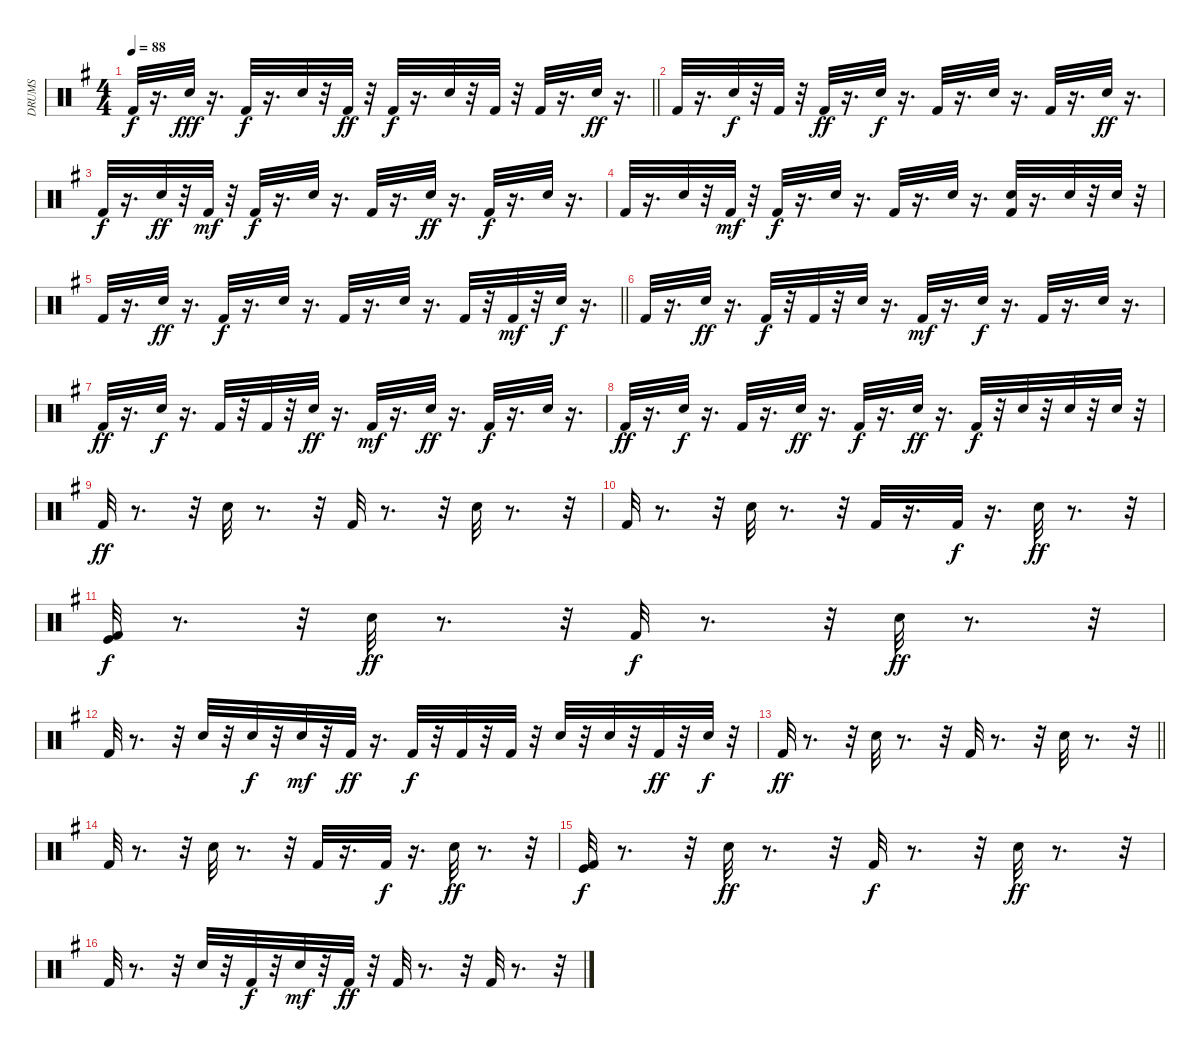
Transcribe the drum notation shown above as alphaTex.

\track ("DRUMS" "DRUMS") {instrument percussion}
\staff {score}
\articulation defaults
\ts (4 4)
\tempo 88
\clef neutral
\barLineRight lightlight
\ks g "Kick (hit) 2".32{dy f}
r.16{d} "Electric Snare (hit)".32{dy fff} r.16{d} "Kick (hit) 2".32{dy f} r.16{d} "Electric Snare (hit)".32 r.32 "Kick (hit) 2".32{dy ff} r.32 "Kick (hit) 2".32{dy f} r.16{d} "Electric Snare (hit)".32 r.32 "Kick (hit) 2".32 r.32 "Kick (hit) 2".32 r.16{d} "Electric Snare (hit)".32{dy ff} r.16{d} |
"Kick (hit) 2".32 r.16{d} "Electric Snare (hit)".32{dy f} r.32 "Kick (hit) 2".32 r.32 "Kick (hit) 2".32{dy ff} r.16{d} "Electric Snare (hit)".32{dy f} r.16{d} "Kick (hit) 2".32 r.16{d} "Electric Snare (hit)".32 r.16{d} "Kick (hit) 2".32 r.16{d} "Electric Snare (hit)".32{dy ff} r.16{d} |
"Kick (hit) 2".32{dy f} r.16{d} "Electric Snare (hit)".32{dy ff} r.32 "Kick (hit) 2".32{dy mf} r.32 "Kick (hit) 2".32{dy f} r.16{d} "Electric Snare (hit)".32 r.16{d} "Kick (hit) 2".32 r.16{d} "Electric Snare (hit)".32{dy ff} r.16{d} "Kick (hit) 2".32{dy f} r.16{d} "Electric Snare (hit)".32 r.16{d} |
"Kick (hit) 2".32 r.16{d} "Electric Snare (hit)".32 r.32 "Kick (hit) 2".32{dy mf} r.32 "Kick (hit) 2".32{dy f} r.16{d} "Electric Snare (hit)".32 r.16{d} "Kick (hit) 2".32 r.16{d} "Electric Snare (hit)".32 r.16{d} ("Kick (hit) 2" "Electric Snare (hit)").32 r.16{d} "Electric Snare (hit)".32 r.32 "Electric Snare (hit)".32 r.32 |
\barLineRight lightlight "Kick (hit) 2".32
r.16{d} "Electric Snare (hit)".32{dy ff} r.16{d} "Kick (hit) 2".32{dy f} r.16{d} "Electric Snare (hit)".32 r.16{d} "Kick (hit) 2".32 r.16{d} "Electric Snare (hit)".32 r.16{d} "Kick (hit) 2".32 r.32 "Kick (hit) 2".32{dy mf} r.32 "Electric Snare (hit)".32{dy f} r.16{d} |
"Kick (hit) 2".32 r.16{d} "Electric Snare (hit)".32{dy ff} r.16{d} "Kick (hit) 2".32{dy f} r.32 "Kick (hit) 2".32 r.32 "Electric Snare (hit)".32 r.16{d} "Kick (hit) 2".32{dy mf} r.16{d} "Electric Snare (hit)".32{dy f} r.16{d} "Kick (hit) 2".32 r.16{d} "Electric Snare (hit)".32 r.16{d} |
"Kick (hit) 2".32{dy ff} r.16{d} "Electric Snare (hit)".32{dy f} r.16{d} "Kick (hit) 2".32 r.32 "Kick (hit) 2".32 r.32 "Electric Snare (hit)".32{dy ff} r.16{d} "Kick (hit) 2".32{dy mf} r.16{d} "Electric Snare (hit)".32{dy ff} r.16{d} "Kick (hit) 2".32{dy f} r.16{d} "Electric Snare (hit)".32 r.16{d} |
"Kick (hit) 2".32{dy ff} r.16{d} "Electric Snare (hit)".32{dy f} r.16{d} "Kick (hit) 2".32 r.16{d} "Electric Snare (hit)".32{dy ff} r.16{d} "Kick (hit) 2".32{dy f} r.16{d} "Electric Snare (hit)".32{dy ff} r.16{d} "Kick (hit) 2".32{dy f} r.32 "Electric Snare (hit)".32 r.32 "Electric Snare (hit)".32 r.32 "Electric Snare (hit)".32 r.32 |
"Kick (hit) 2".32{dy ff} r.8{d} r.32 "Electric Snare (hit)".32 r.8{d} r.32 "Kick (hit) 2".32 r.8{d} r.32 "Electric Snare (hit)".32 r.8{d} r.32 |
"Kick (hit) 2".32 r.8{d} r.32 "Electric Snare (hit)".32 r.8{d} r.32 "Kick (hit) 2".32 r.16{d} "Kick (hit) 2".32{dy f} r.16{d} "Electric Snare (hit)".32{dy ff} r.8{d} r.32 |
("Kick (hit)" "Kick (hit) 2").32{dy f} r.8{d} r.32 "Electric Snare (hit)".32{dy ff} r.8{d} r.32 "Kick (hit) 2".32{dy f} r.8{d} r.32 "Electric Snare (hit)".32{dy ff} r.8{d} r.32 |
"Kick (hit) 2".32 r.8{d} r.32 "Electric Snare (hit)".32 r.32 "Electric Snare (hit)".32{dy f} r.32 "Electric Snare (hit)".32{dy mf} r.32 "Kick (hit) 2".32{dy ff} r.16{d} "Kick (hit) 2".32{dy f} r.32 "Kick (hit) 2".32 r.32 "Kick (hit) 2".32 r.32 "Electric Snare (hit)".32 r.32 "Electric Snare (hit)".32 r.32 "Kick (hit) 2".32{dy ff} r.32 "Electric Snare (hit)".32{dy f} r.32 |
\barLineRight lightlight "Kick (hit) 2".32{dy ff}
r.8{d} r.32 "Electric Snare (hit)".32 r.8{d} r.32 "Kick (hit) 2".32 r.8{d} r.32 "Electric Snare (hit)".32 r.8{d} r.32 |
"Kick (hit) 2".32 r.8{d} r.32 "Electric Snare (hit)".32 r.8{d} r.32 "Kick (hit) 2".32 r.16{d} "Kick (hit) 2".32{dy f} r.16{d} "Electric Snare (hit)".32{dy ff} r.8{d} r.32 |
("Kick (hit)" "Kick (hit) 2").32{dy f} r.8{d} r.32 "Electric Snare (hit)".32{dy ff} r.8{d} r.32 "Kick (hit) 2".32{dy f} r.8{d} r.32 "Electric Snare (hit)".32{dy ff} r.8{d} r.32 |
"Kick (hit) 2".32 r.8{d} r.32 "Electric Snare (hit)".32 r.32 "Kick (hit) 2".32{dy f} r.32 "Electric Snare (hit)".32{dy mf} r.32 "Kick (hit) 2".32{dy ff} r.32 "Kick (hit) 2".32 r.8{d} r.32 "Kick (hit) 2".32 r.8{d} r.32
